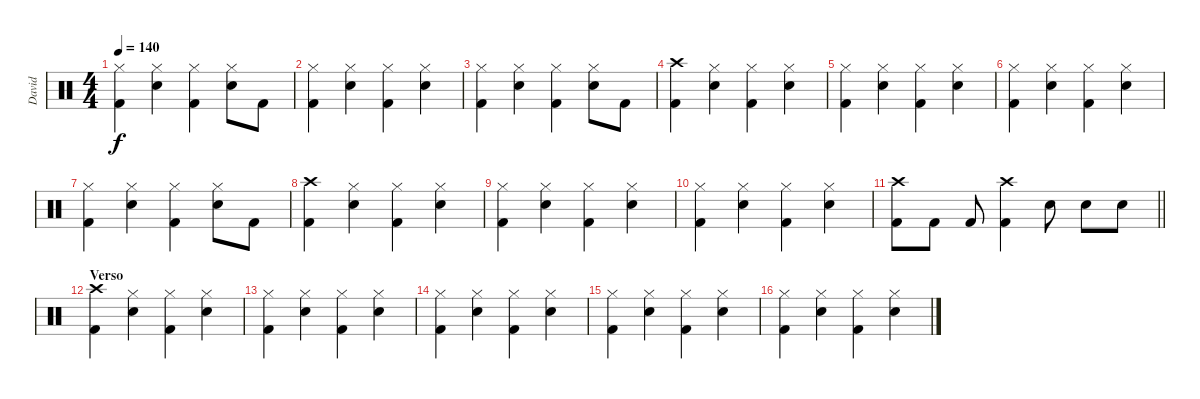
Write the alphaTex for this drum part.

\track ("David" "David") {instrument percussion}
\staff {score}
\articulation defaults
\ts (4 4)
\tempo 140
\clef neutral
\ks c
("Hi-Hat (closed)" "Kick (hit) 2").4{dy f} ("Hi-Hat (closed)" "Snare (hit) 2").4 ("Hi-Hat (closed)" "Kick (hit) 2").4 ("Hi-Hat (closed)" "Snare (hit) 2").8 "Kick (hit) 2".8 |
("Hi-Hat (closed)" "Kick (hit) 2").4 ("Hi-Hat (closed)" "Snare (hit) 2").4 ("Hi-Hat (closed)" "Kick (hit) 2").4 ("Hi-Hat (closed)" "Snare (hit) 2").4 |
("Hi-Hat (closed)" "Kick (hit) 2").4 ("Hi-Hat (closed)" "Snare (hit) 2").4 ("Hi-Hat (closed)" "Kick (hit) 2").4 ("Hi-Hat (closed)" "Snare (hit) 2").8 "Kick (hit) 2".8 |
("Crash high (hit)" "Kick (hit) 2").4 ("Hi-Hat (closed)" "Snare (hit) 2").4 ("Hi-Hat (closed)" "Kick (hit) 2").4 ("Hi-Hat (closed)" "Snare (hit) 2").4 |
("Hi-Hat (closed)" "Kick (hit) 2").4 ("Hi-Hat (closed)" "Snare (hit) 2").4 ("Hi-Hat (closed)" "Kick (hit) 2").4 ("Hi-Hat (closed)" "Snare (hit) 2").4 |
("Hi-Hat (closed)" "Kick (hit) 2").4 ("Hi-Hat (closed)" "Snare (hit) 2").4 ("Hi-Hat (closed)" "Kick (hit) 2").4 ("Hi-Hat (closed)" "Snare (hit) 2").4 |
("Hi-Hat (closed)" "Kick (hit) 2").4 ("Hi-Hat (closed)" "Snare (hit) 2").4 ("Hi-Hat (closed)" "Kick (hit) 2").4 ("Hi-Hat (closed)" "Snare (hit) 2").8 "Kick (hit) 2".8 |
("Crash high (hit)" "Kick (hit) 2").4 ("Hi-Hat (closed)" "Snare (hit) 2").4 ("Hi-Hat (closed)" "Kick (hit) 2").4 ("Hi-Hat (closed)" "Snare (hit) 2").4 |
("Hi-Hat (closed)" "Kick (hit) 2").4 ("Hi-Hat (closed)" "Snare (hit) 2").4 ("Hi-Hat (closed)" "Kick (hit) 2").4 ("Hi-Hat (closed)" "Snare (hit) 2").4 |
("Hi-Hat (closed)" "Kick (hit) 2").4 ("Hi-Hat (closed)" "Snare (hit) 2").4 ("Hi-Hat (closed)" "Kick (hit) 2").4 ("Hi-Hat (closed)" "Snare (hit) 2").4 |
\barLineRight lightlight
("Crash high (hit)" "Kick (hit) 2").8 "Kick (hit) 2".8 "Kick (hit) 2".8 ("Crash high (hit)" "Kick (hit) 2").4 "Snare (hit) 2".8 "Snare (hit) 2".8 "Snare (hit) 2".8 |
\section ("" "Verso")
("Crash high (hit)" "Kick (hit) 2").4 ("Hi-Hat (closed)" "Snare (hit) 2").4 ("Hi-Hat (closed)" "Kick (hit) 2").4 ("Hi-Hat (closed)" "Snare (hit) 2").4 |
("Hi-Hat (closed)" "Kick (hit) 2").4 ("Hi-Hat (closed)" "Snare (hit) 2").4 ("Hi-Hat (closed)" "Kick (hit) 2").4 ("Hi-Hat (closed)" "Snare (hit) 2").4 |
("Hi-Hat (closed)" "Kick (hit) 2").4 ("Hi-Hat (closed)" "Snare (hit) 2").4 ("Hi-Hat (closed)" "Kick (hit) 2").4 ("Hi-Hat (closed)" "Snare (hit) 2").4 |
("Hi-Hat (closed)" "Kick (hit) 2").4 ("Hi-Hat (closed)" "Snare (hit) 2").4 ("Hi-Hat (closed)" "Kick (hit) 2").4 ("Hi-Hat (closed)" "Snare (hit) 2").4 |
("Hi-Hat (closed)" "Kick (hit) 2").4 ("Hi-Hat (closed)" "Snare (hit) 2").4 ("Hi-Hat (closed)" "Kick (hit) 2").4 ("Hi-Hat (closed)" "Snare (hit) 2").4
